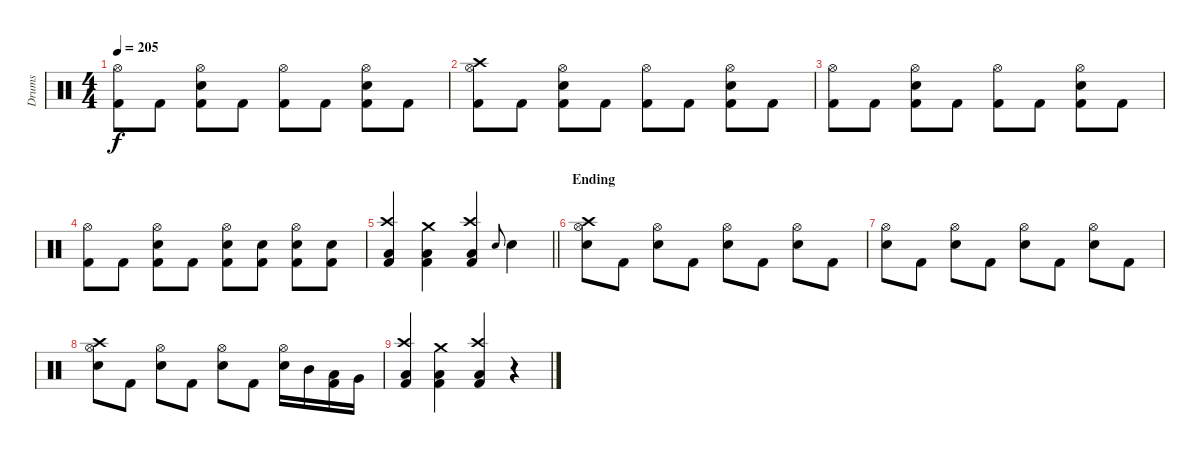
\track ("Drums" "Drums") {instrument percussion}
\staff {score}
\articulation defaults
\ts (4 4)
\tempo 205
\clef neutral
\ks c
("Hi-Hat (open)" "Kick (hit) 2").8{dy f} "Kick (hit) 2".8 ("Hi-Hat (open)" "Snare (hit) 2" "Kick (hit) 2").8 "Kick (hit) 2".8 ("Hi-Hat (open)" "Kick (hit) 2").8 "Kick (hit) 2".8 ("Hi-Hat (open)" "Snare (hit) 2" "Kick (hit) 2").8 "Kick (hit) 2".8 |
("Crash high (hit)" "Hi-Hat (open)" "Kick (hit) 2").8 "Kick (hit) 2".8 ("Hi-Hat (open)" "Snare (hit) 2" "Kick (hit) 2").8 "Kick (hit) 2".8 ("Hi-Hat (open)" "Kick (hit) 2").8 "Kick (hit) 2".8 ("Hi-Hat (open)" "Snare (hit) 2" "Kick (hit) 2").8 "Kick (hit) 2".8 |
("Hi-Hat (open)" "Kick (hit) 2").8 "Kick (hit) 2".8 ("Hi-Hat (open)" "Snare (hit) 2" "Kick (hit) 2").8 "Kick (hit) 2".8 ("Hi-Hat (open)" "Kick (hit) 2").8 "Kick (hit) 2".8 ("Hi-Hat (open)" "Snare (hit) 2" "Kick (hit) 2").8 "Kick (hit) 2".8 |
("Hi-Hat (open)" "Kick (hit) 2").8 "Kick (hit) 2".8 ("Hi-Hat (open)" "Snare (hit) 2" "Kick (hit) 2").8 "Kick (hit) 2".8 ("Hi-Hat (open)" "Snare (hit) 2" "Kick (hit) 2").8 ("Snare (hit) 2" "Kick (hit) 2").8 ("Hi-Hat (open)" "Snare (hit) 2" "Kick (hit) 2").8 ("Snare (hit) 2" "Kick (hit) 2").8 |
\barLineRight lightlight
("Crash high (hit)" "Low Floor Tom (hit)" "Kick (hit) 2").4 ("Crash medium (hit)" "Low Floor Tom (hit)" "Kick (hit) 2").4 ("Crash high (hit)" "Low Floor Tom (hit)" "Kick (hit) 2").4 "Snare (hit) 2".8{gr onbeat} "Snare (hit) 2".4 |
\section ("" "Ending")
("Crash high (hit)" "Hi-Hat (open)" "Snare (hit) 2").8 "Kick (hit) 2".8 ("Hi-Hat (open)" "Snare (hit) 2").8 "Kick (hit) 2".8 ("Hi-Hat (open)" "Snare (hit) 2").8 "Kick (hit) 2".8 ("Hi-Hat (open)" "Snare (hit) 2").8 "Kick (hit) 2".8 |
("Hi-Hat (open)" "Snare (hit) 2").8 "Kick (hit) 2".8 ("Hi-Hat (open)" "Snare (hit) 2").8 "Kick (hit) 2".8 ("Hi-Hat (open)" "Snare (hit) 2").8 "Kick (hit) 2".8 ("Hi-Hat (open)" "Snare (hit) 2").8 "Kick (hit) 2".8 |
("Crash high (hit)" "Hi-Hat (open)" "Snare (hit) 2").8 "Kick (hit) 2".8 ("Hi-Hat (open)" "Snare (hit) 2").8 "Kick (hit) 2".8 ("Hi-Hat (open)" "Snare (hit) 2").8 "Kick (hit) 2".8 ("Hi-Hat (open)" "Snare (hit) 2").16 "Mid Tom (hit)".16 ("Low Tom (hit)" "Kick (hit) 2").16 "Very Low Tom (hit)".16 |
("Crash high (hit)" "Low Floor Tom (hit)" "Kick (hit) 2").4 ("Crash medium (hit)" "Low Floor Tom (hit)" "Kick (hit) 2").4 ("Crash high (hit)" "Low Floor Tom (hit)" "Kick (hit) 2").4 r.4
